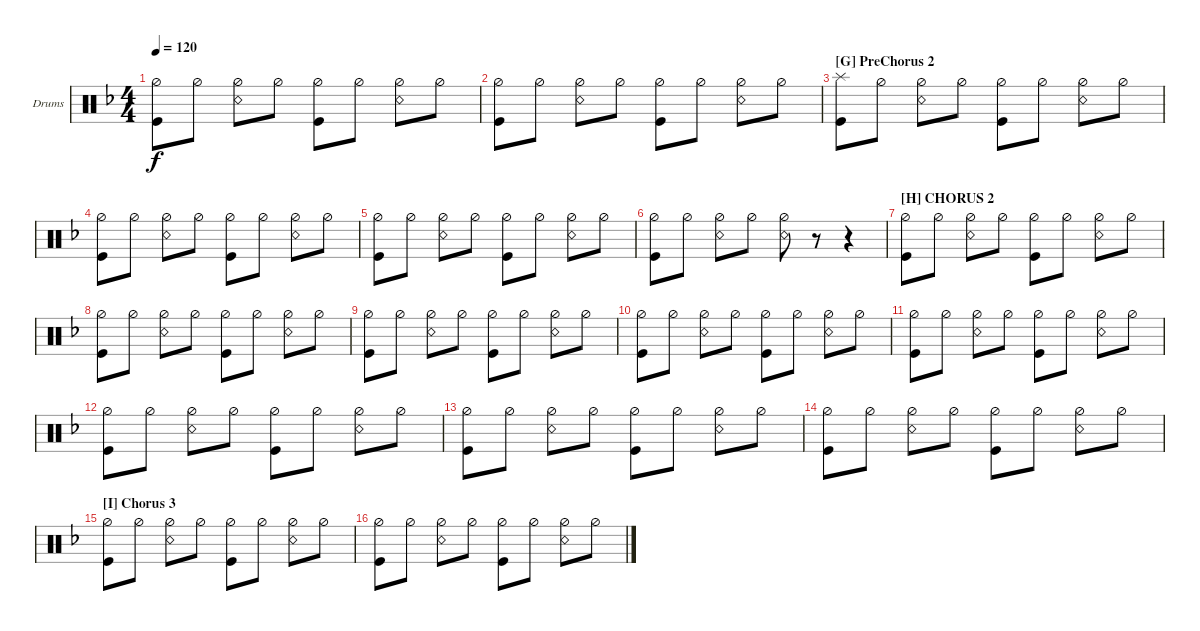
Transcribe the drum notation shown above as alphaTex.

\bracketExtendMode groupsimilarinstruments
\firstSystemTrackNameOrientation horizontal
\otherSystemsTrackNameOrientation horizontal
\track ("Drumkit" "Drums") {instrument percussion}
\staff {score}
\articulation defaults
\ts (4 4)
\tempo 120
\clef neutral
\ks f
("Kick (hit)" "Hi-Hat (half)").8{dy f} "Hi-Hat (half)".8 ("Hi-Hat (half)" "Snare (rim shot)").8 "Hi-Hat (half)".8 ("Hi-Hat (half)" "Kick (hit)").8 "Hi-Hat (half)".8 ("Hi-Hat (half)" "Snare (rim shot)").8 "Hi-Hat (half)".8 |
("Kick (hit)" "Hi-Hat (half)").8 "Hi-Hat (half)".8 ("Hi-Hat (half)" "Snare (rim shot)").8 "Hi-Hat (half)".8 ("Hi-Hat (half)" "Kick (hit)").8 "Hi-Hat (half)".8 ("Hi-Hat (half)" "Snare (rim shot)").8 "Hi-Hat (half)".8 |
\section ("G" "PreChorus 2")
("Kick (hit)" "Splash (hit)").8 "Hi-Hat (half)".8 ("Hi-Hat (half)" "Snare (rim shot)").8 "Hi-Hat (half)".8 ("Hi-Hat (half)" "Kick (hit)").8 "Hi-Hat (half)".8 ("Hi-Hat (half)" "Snare (rim shot)").8 "Hi-Hat (half)".8 |
("Kick (hit)" "Hi-Hat (half)").8 "Hi-Hat (half)".8 ("Hi-Hat (half)" "Snare (rim shot)").8 "Hi-Hat (half)".8 ("Hi-Hat (half)" "Kick (hit)").8 "Hi-Hat (half)".8 ("Hi-Hat (half)" "Snare (rim shot)").8 "Hi-Hat (half)".8 |
("Kick (hit)" "Hi-Hat (half)").8 "Hi-Hat (half)".8 ("Hi-Hat (half)" "Snare (rim shot)").8 "Hi-Hat (half)".8 ("Hi-Hat (half)" "Kick (hit)").8 "Hi-Hat (half)".8 ("Hi-Hat (half)" "Snare (rim shot)").8 "Hi-Hat (half)".8 |
("Kick (hit)" "Hi-Hat (half)").8 "Hi-Hat (half)".8 ("Hi-Hat (half)" "Snare (rim shot)").8 "Hi-Hat (half)".8 ("Hi-Hat (half)" "Snare (rim shot)").8 r.8 r.4 |
\section ("H" "CHORUS 2")
("Kick (hit)" "Hi-Hat (half)").8 "Hi-Hat (half)".8 ("Hi-Hat (half)" "Snare (rim shot)").8 "Hi-Hat (half)".8 ("Hi-Hat (half)" "Kick (hit)").8 "Hi-Hat (half)".8 ("Hi-Hat (half)" "Snare (rim shot)").8 "Hi-Hat (half)".8 |
("Kick (hit)" "Hi-Hat (half)").8 "Hi-Hat (half)".8 ("Hi-Hat (half)" "Snare (rim shot)").8 "Hi-Hat (half)".8 ("Hi-Hat (half)" "Kick (hit)").8 "Hi-Hat (half)".8 ("Hi-Hat (half)" "Snare (rim shot)").8 "Hi-Hat (half)".8 |
("Kick (hit)" "Hi-Hat (half)").8 "Hi-Hat (half)".8 ("Hi-Hat (half)" "Snare (rim shot)").8 "Hi-Hat (half)".8 ("Hi-Hat (half)" "Kick (hit)").8 "Hi-Hat (half)".8 ("Hi-Hat (half)" "Snare (rim shot)").8 "Hi-Hat (half)".8 |
("Kick (hit)" "Hi-Hat (half)").8 "Hi-Hat (half)".8 ("Hi-Hat (half)" "Snare (rim shot)").8 "Hi-Hat (half)".8 ("Hi-Hat (half)" "Kick (hit)").8 "Hi-Hat (half)".8 ("Hi-Hat (half)" "Snare (rim shot)").8 "Hi-Hat (half)".8 |
("Kick (hit)" "Hi-Hat (half)").8 "Hi-Hat (half)".8 ("Hi-Hat (half)" "Snare (rim shot)").8 "Hi-Hat (half)".8 ("Hi-Hat (half)" "Kick (hit)").8 "Hi-Hat (half)".8 ("Hi-Hat (half)" "Snare (rim shot)").8 "Hi-Hat (half)".8 |
("Kick (hit)" "Hi-Hat (half)").8 "Hi-Hat (half)".8 ("Hi-Hat (half)" "Snare (rim shot)").8 "Hi-Hat (half)".8 ("Hi-Hat (half)" "Kick (hit)").8 "Hi-Hat (half)".8 ("Hi-Hat (half)" "Snare (rim shot)").8 "Hi-Hat (half)".8 |
("Kick (hit)" "Hi-Hat (half)").8 "Hi-Hat (half)".8 ("Hi-Hat (half)" "Snare (rim shot)").8 "Hi-Hat (half)".8 ("Hi-Hat (half)" "Kick (hit)").8 "Hi-Hat (half)".8 ("Hi-Hat (half)" "Snare (rim shot)").8 "Hi-Hat (half)".8 |
("Kick (hit)" "Hi-Hat (half)").8 "Hi-Hat (half)".8 ("Hi-Hat (half)" "Snare (rim shot)").8 "Hi-Hat (half)".8 ("Hi-Hat (half)" "Kick (hit)").8 "Hi-Hat (half)".8 ("Hi-Hat (half)" "Snare (rim shot)").8 "Hi-Hat (half)".8 |
\section ("I" "Chorus 3")
("Kick (hit)" "Hi-Hat (half)").8 "Hi-Hat (half)".8 ("Hi-Hat (half)" "Snare (rim shot)").8 "Hi-Hat (half)".8 ("Hi-Hat (half)" "Kick (hit)").8 "Hi-Hat (half)".8 ("Hi-Hat (half)" "Snare (rim shot)").8 "Hi-Hat (half)".8 |
("Kick (hit)" "Hi-Hat (half)").8 "Hi-Hat (half)".8 ("Hi-Hat (half)" "Snare (rim shot)").8 "Hi-Hat (half)".8 ("Hi-Hat (half)" "Kick (hit)").8 "Hi-Hat (half)".8 ("Hi-Hat (half)" "Snare (rim shot)").8 "Hi-Hat (half)".8
